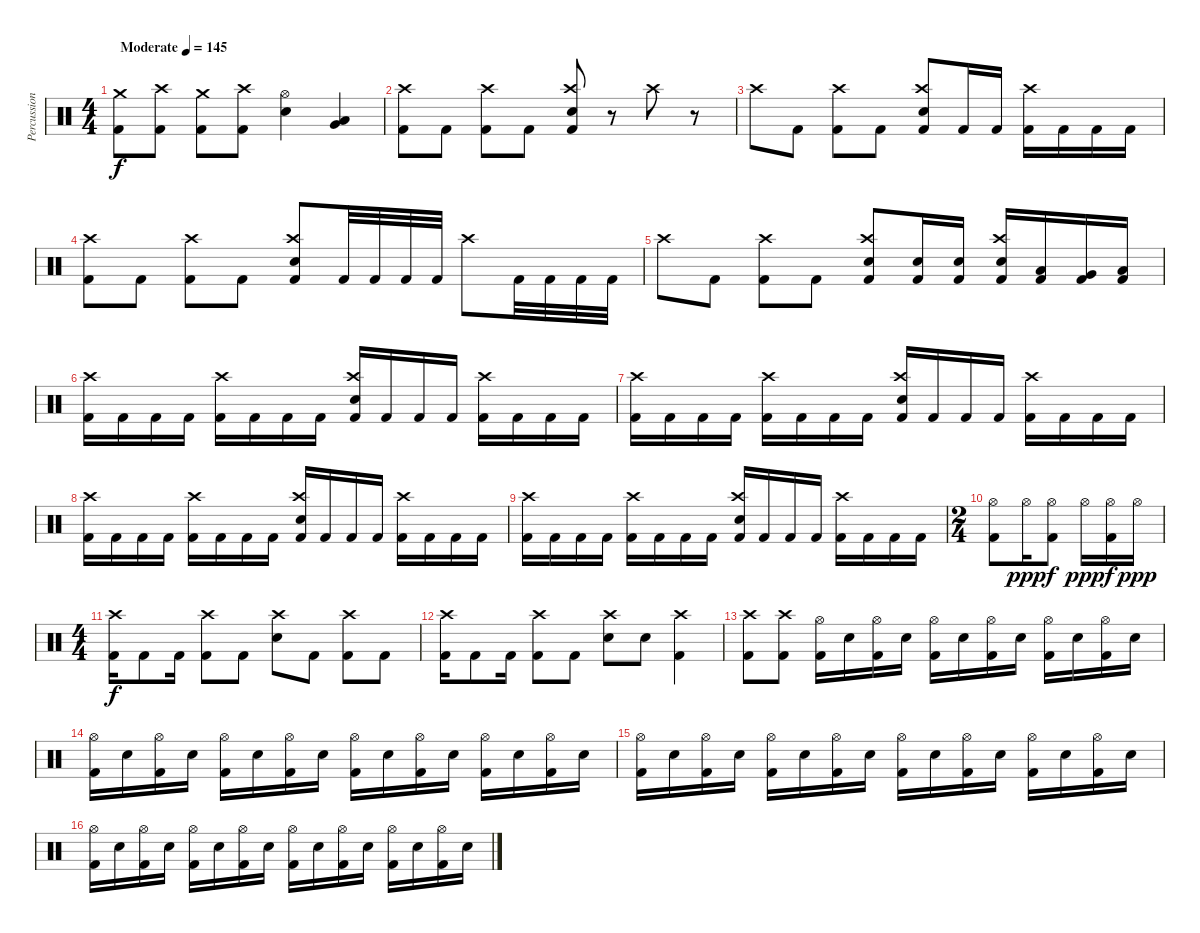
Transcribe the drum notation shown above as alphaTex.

\track ("Percussion" "Percussion") {instrument percussion}
\staff {score}
\articulation defaults
\ts (4 4)
\tempo (145 "Moderate")
\clef neutral
\ks c
("Crash medium (hit)" "Kick (hit) 2").8{dy f} ("Crash high (hit)" "Kick (hit) 2").8 ("Crash medium (hit)" "Kick (hit) 2").8 ("Crash high (hit)" "Kick (hit) 2").8 ("Hi-Hat (open)" "Electric Snare (hit)").4 ("Very Low Tom (hit)" "Low Tom (hit)").4 |
("Crash high (hit)" "Kick (hit) 2").8 "Kick (hit) 2".8 ("Crash high (hit)" "Kick (hit) 2").8 "Kick (hit) 2".8 ("Crash high (hit)" "Electric Snare (hit)" "Kick (hit) 2").8 r.8 "Crash high (hit)".8 r.8 |
"Crash high (hit)".8 "Kick (hit) 2".8 ("Crash high (hit)" "Kick (hit) 2").8 "Kick (hit) 2".8 ("Crash high (hit)" "Electric Snare (hit)" "Kick (hit) 2").8 "Kick (hit) 2".16 "Kick (hit) 2".16 ("Crash high (hit)" "Kick (hit) 2").16 "Kick (hit) 2".16 "Kick (hit) 2".16 "Kick (hit) 2".16 |
("Crash high (hit)" "Kick (hit) 2").8 "Kick (hit) 2".8 ("Crash high (hit)" "Kick (hit) 2").8 "Kick (hit) 2".8 ("Crash high (hit)" "Electric Snare (hit)" "Kick (hit) 2").8 "Kick (hit) 2".32 "Kick (hit) 2".32 "Kick (hit) 2".32 "Kick (hit) 2".32 "Crash high (hit)".8 "Kick (hit) 2".32 "Kick (hit) 2".32 "Kick (hit) 2".32 "Kick (hit) 2".32 |
"Crash high (hit)".8 "Kick (hit) 2".8 ("Crash high (hit)" "Kick (hit) 2").8 "Kick (hit) 2".8 ("Crash high (hit)" "Electric Snare (hit)" "Kick (hit) 2").8 ("Electric Snare (hit)" "Kick (hit) 2").16 ("Electric Snare (hit)" "Kick (hit) 2").16 ("Crash high (hit)" "Electric Snare (hit)" "Kick (hit) 2").16 ("Low Tom (hit)" "Kick (hit) 2").16 ("Very Low Tom (hit)" "Kick (hit) 2").16 ("Low Floor Tom (hit)" "Kick (hit) 2").16 |
("Crash high (hit)" "Kick (hit) 2").16 "Kick (hit) 2".16 "Kick (hit) 2".16 "Kick (hit) 2".16 ("Crash high (hit)" "Kick (hit) 2").16 "Kick (hit) 2".16 "Kick (hit) 2".16 "Kick (hit) 2".16 ("Crash high (hit)" "Electric Snare (hit)" "Kick (hit) 2").16 "Kick (hit) 2".16 "Kick (hit) 2".16 "Kick (hit) 2".16 ("Crash high (hit)" "Kick (hit) 2").16 "Kick (hit) 2".16 "Kick (hit) 2".16 "Kick (hit) 2".16 |
("Crash high (hit)" "Kick (hit) 2").16 "Kick (hit) 2".16 "Kick (hit) 2".16 "Kick (hit) 2".16 ("Crash high (hit)" "Kick (hit) 2").16 "Kick (hit) 2".16 "Kick (hit) 2".16 "Kick (hit) 2".16 ("Crash high (hit)" "Electric Snare (hit)" "Kick (hit) 2").16 "Kick (hit) 2".16 "Kick (hit) 2".16 "Kick (hit) 2".16 ("Crash high (hit)" "Kick (hit) 2").16 "Kick (hit) 2".16 "Kick (hit) 2".16 "Kick (hit) 2".16 |
("Crash high (hit)" "Kick (hit) 2").16 "Kick (hit) 2".16 "Kick (hit) 2".16 "Kick (hit) 2".16 ("Crash high (hit)" "Kick (hit) 2").16 "Kick (hit) 2".16 "Kick (hit) 2".16 "Kick (hit) 2".16 ("Crash high (hit)" "Electric Snare (hit)" "Kick (hit) 2").16 "Kick (hit) 2".16 "Kick (hit) 2".16 "Kick (hit) 2".16 ("Crash high (hit)" "Kick (hit) 2").16 "Kick (hit) 2".16 "Kick (hit) 2".16 "Kick (hit) 2".16 |
("Crash high (hit)" "Kick (hit) 2").16 "Kick (hit) 2".16 "Kick (hit) 2".16 "Kick (hit) 2".16 ("Crash high (hit)" "Kick (hit) 2").16 "Kick (hit) 2".16 "Kick (hit) 2".16 "Kick (hit) 2".16 ("Crash high (hit)" "Electric Snare (hit)" "Kick (hit) 2").16 "Kick (hit) 2".16 "Kick (hit) 2".16 "Kick (hit) 2".16 ("Crash high (hit)" "Kick (hit) 2").16 "Kick (hit) 2".16 "Kick (hit) 2".16 "Kick (hit) 2".16 |
\ts (2 4)
("Hi-Hat (open)" "Kick (hit) 2").8 "Hi-Hat (open)".16{dy ppp} ("Hi-Hat (open)" "Kick (hit) 2").8{dy f} "Hi-Hat (open)".16{dy ppp} ("Hi-Hat (open)" "Kick (hit) 2").16{dy f} "Hi-Hat (open)".16{dy ppp} |
\ts (4 4)
("Crash high (hit)" "Kick (hit) 2").16{dy f} "Kick (hit) 2".8 "Kick (hit) 2".16 ("Crash high (hit)" "Kick (hit) 2").8 "Kick (hit) 2".8 ("Crash high (hit)" "Electric Snare (hit)").8 "Kick (hit) 2".8 ("Crash high (hit)" "Kick (hit) 2").8 "Kick (hit) 2".8 |
("Crash high (hit)" "Kick (hit) 2").16 "Kick (hit) 2".8 "Kick (hit) 2".16 ("Crash high (hit)" "Kick (hit) 2").8 "Kick (hit) 2".8 ("Crash high (hit)" "Electric Snare (hit)").8 "Electric Snare (hit)".8 ("Crash high (hit)" "Kick (hit) 2").4 |
("Crash high (hit)" "Kick (hit) 2").8 ("Crash high (hit)" "Kick (hit) 2").8 ("Hi-Hat (open)" "Kick (hit) 2").16 "Electric Snare (hit)".16 ("Hi-Hat (open)" "Kick (hit) 2").16 "Electric Snare (hit)".16 ("Hi-Hat (open)" "Kick (hit) 2").16 "Electric Snare (hit)".16 ("Hi-Hat (open)" "Kick (hit) 2").16 "Electric Snare (hit)".16 ("Hi-Hat (open)" "Kick (hit) 2").16 "Electric Snare (hit)".16 ("Hi-Hat (open)" "Kick (hit) 2").16 "Electric Snare (hit)".16 |
("Hi-Hat (open)" "Kick (hit) 2").16 "Electric Snare (hit)".16 ("Hi-Hat (open)" "Kick (hit) 2").16 "Electric Snare (hit)".16 ("Hi-Hat (open)" "Kick (hit) 2").16 "Electric Snare (hit)".16 ("Hi-Hat (open)" "Kick (hit) 2").16 "Electric Snare (hit)".16 ("Hi-Hat (open)" "Kick (hit) 2").16 "Electric Snare (hit)".16 ("Hi-Hat (open)" "Kick (hit) 2").16 "Electric Snare (hit)".16 ("Hi-Hat (open)" "Kick (hit) 2").16 "Electric Snare (hit)".16 ("Hi-Hat (open)" "Kick (hit) 2").16 "Electric Snare (hit)".16 |
("Hi-Hat (open)" "Kick (hit) 2").16 "Electric Snare (hit)".16 ("Hi-Hat (open)" "Kick (hit) 2").16 "Electric Snare (hit)".16 ("Hi-Hat (open)" "Kick (hit) 2").16 "Electric Snare (hit)".16 ("Hi-Hat (open)" "Kick (hit) 2").16 "Electric Snare (hit)".16 ("Hi-Hat (open)" "Kick (hit) 2").16 "Electric Snare (hit)".16 ("Hi-Hat (open)" "Kick (hit) 2").16 "Electric Snare (hit)".16 ("Hi-Hat (open)" "Kick (hit) 2").16 "Electric Snare (hit)".16 ("Hi-Hat (open)" "Kick (hit) 2").16 "Electric Snare (hit)".16 |
("Hi-Hat (open)" "Kick (hit) 2").16 "Electric Snare (hit)".16 ("Hi-Hat (open)" "Kick (hit) 2").16 "Electric Snare (hit)".16 ("Hi-Hat (open)" "Kick (hit) 2").16 "Electric Snare (hit)".16 ("Hi-Hat (open)" "Kick (hit) 2").16 "Electric Snare (hit)".16 ("Hi-Hat (open)" "Kick (hit) 2").16 "Electric Snare (hit)".16 ("Hi-Hat (open)" "Kick (hit) 2").16 "Electric Snare (hit)".16 ("Hi-Hat (open)" "Kick (hit) 2").16 "Electric Snare (hit)".16 ("Hi-Hat (open)" "Kick (hit) 2").16 "Electric Snare (hit)".16
